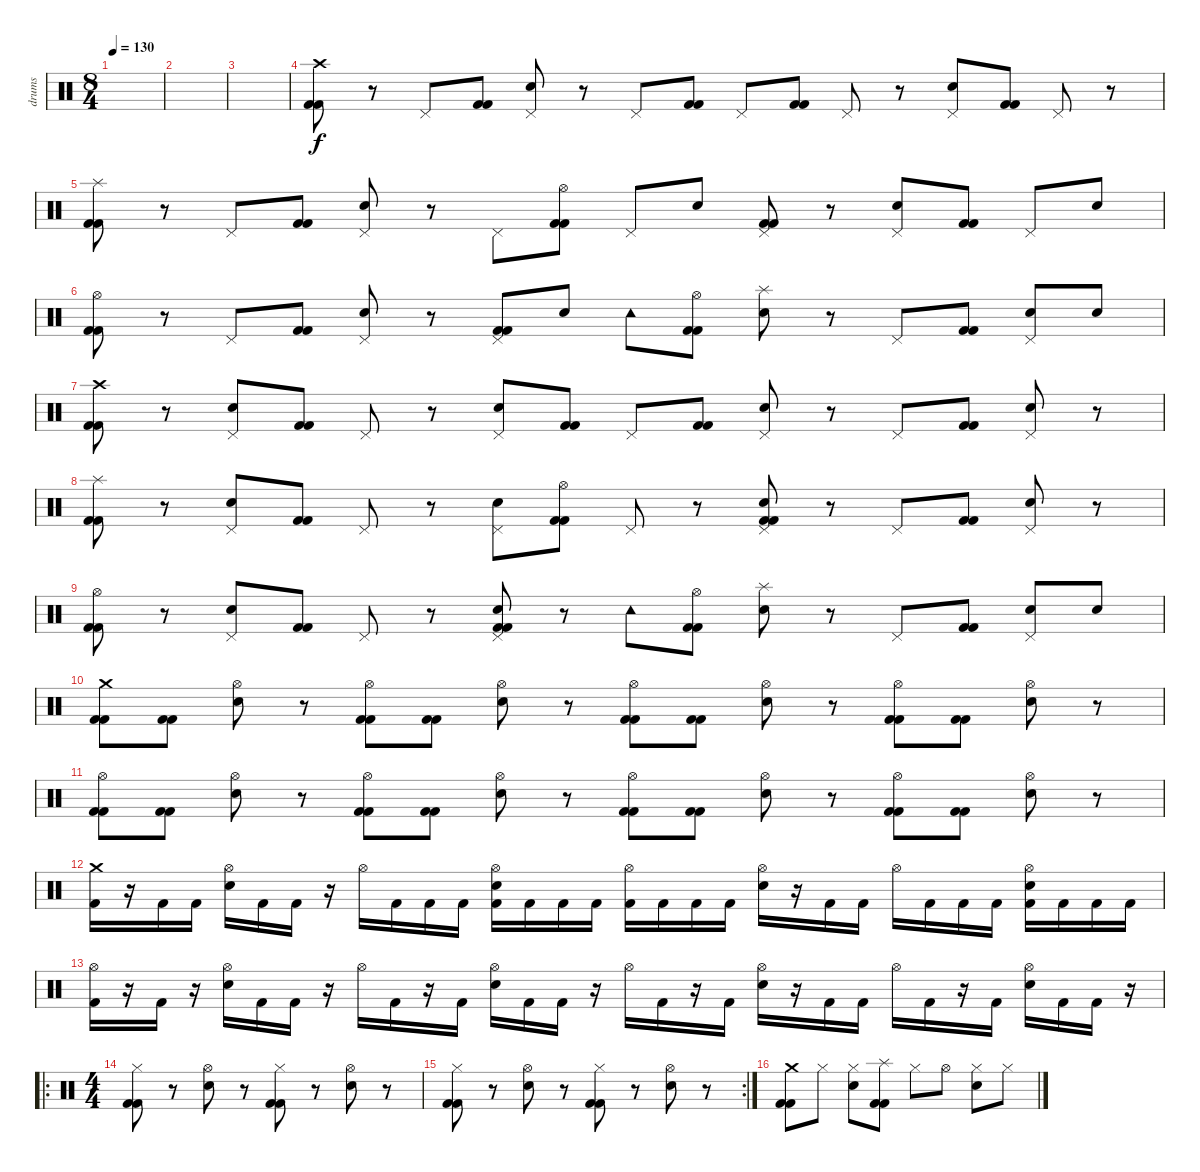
\track ("drums" "drums") {instrument percussion}
\staff {score}
\articulation defaults
\ts (8 4)
\tempo 130
\clef neutral
\ks c
|
|
|
("Crash high (hit)" "Kick (hit) 2" "Kick (hit) 2").8 r.8 "Pedal Hi-Hat (hit)".8 ("Kick (hit) 2" "Kick (hit) 2").8 ("Pedal Hi-Hat (hit)" "Electric Snare (hit)").8 r.8 "Pedal Hi-Hat (hit)".8 ("Kick (hit) 2" "Kick (hit) 2").8 "Pedal Hi-Hat (hit)".8 ("Kick (hit) 2" "Kick (hit) 2").8 "Pedal Hi-Hat (hit)".8 r.8 ("Pedal Hi-Hat (hit)" "Electric Snare (hit)").8 ("Kick (hit) 2" "Kick (hit) 2").8 "Pedal Hi-Hat (hit)".8 r.8 |
("Splash (hit)" "Kick (hit) 2" "Kick (hit) 2").8 r.8 "Pedal Hi-Hat (hit)".8 ("Kick (hit) 2" "Kick (hit) 2").8 ("Pedal Hi-Hat (hit)" "Electric Snare (hit)").8 r.8 "Pedal Hi-Hat (hit)".8 ("Hi-Hat (open)" "Kick (hit) 2" "Kick (hit) 2").8 "Pedal Hi-Hat (hit)".8 "Electric Snare (hit)".8 ("Pedal Hi-Hat (hit)" "Kick (hit) 2" "Kick (hit) 2").8 r.8 ("Pedal Hi-Hat (hit)" "Electric Snare (hit)").8 ("Kick (hit) 2" "Kick (hit) 2").8 "Pedal Hi-Hat (hit)".8 "Electric Snare (hit)".8 |
("Hi-Hat (open)" "Kick (hit) 2" "Kick (hit) 2").8 r.8 "Pedal Hi-Hat (hit)".8 ("Kick (hit) 2" "Kick (hit) 2").8 ("Pedal Hi-Hat (hit)" "Electric Snare (hit)").8 r.8 ("Pedal Hi-Hat (hit)" "Kick (hit) 2" "Kick (hit) 2").8 "Electric Snare (hit)".8 "Tambourine (hit)".8 ("Hi-Hat (open)" "Kick (hit) 2" "Kick (hit) 2").8 ("Splash (hit)" "Electric Snare (hit)").8 r.8 "Pedal Hi-Hat (hit)".8 ("Kick (hit) 2" "Kick (hit) 2").8 ("Pedal Hi-Hat (hit)" "Electric Snare (hit)").8 "Electric Snare (hit)".8 |
("Crash high (hit)" "Kick (hit) 2" "Kick (hit) 2").8 r.8 ("Pedal Hi-Hat (hit)" "Electric Snare (hit)").8 ("Kick (hit) 2" "Kick (hit) 2").8 "Pedal Hi-Hat (hit)".8 r.8 ("Pedal Hi-Hat (hit)" "Electric Snare (hit)").8 ("Kick (hit) 2" "Kick (hit) 2").8 "Pedal Hi-Hat (hit)".8 ("Kick (hit) 2" "Kick (hit) 2").8 ("Pedal Hi-Hat (hit)" "Electric Snare (hit)").8 r.8 "Pedal Hi-Hat (hit)".8 ("Kick (hit) 2" "Kick (hit) 2").8 ("Pedal Hi-Hat (hit)" "Electric Snare (hit)").8 r.8 |
("Splash (hit)" "Kick (hit) 2" "Kick (hit) 2").8 r.8 ("Pedal Hi-Hat (hit)" "Electric Snare (hit)").8 ("Kick (hit) 2" "Kick (hit) 2").8 "Pedal Hi-Hat (hit)".8 r.8 ("Pedal Hi-Hat (hit)" "Electric Snare (hit)").8 ("Hi-Hat (open)" "Kick (hit) 2" "Kick (hit) 2").8 "Pedal Hi-Hat (hit)".8 r.8 ("Pedal Hi-Hat (hit)" "Electric Snare (hit)" "Kick (hit) 2" "Kick (hit) 2").8 r.8 "Pedal Hi-Hat (hit)".8 ("Kick (hit) 2" "Kick (hit) 2").8 ("Pedal Hi-Hat (hit)" "Electric Snare (hit)").8 r.8 |
("Hi-Hat (open)" "Kick (hit) 2" "Kick (hit) 2").8 r.8 ("Pedal Hi-Hat (hit)" "Electric Snare (hit)").8 ("Kick (hit) 2" "Kick (hit) 2").8 "Pedal Hi-Hat (hit)".8 r.8 ("Pedal Hi-Hat (hit)" "Electric Snare (hit)" "Kick (hit) 2" "Kick (hit) 2").8 r.8 "Tambourine (hit)".8 ("Hi-Hat (open)" "Kick (hit) 2" "Kick (hit) 2").8 ("Splash (hit)" "Electric Snare (hit)").8 r.8 "Pedal Hi-Hat (hit)".8 ("Kick (hit) 2" "Kick (hit) 2").8 ("Pedal Hi-Hat (hit)" "Electric Snare (hit)").8 "Electric Snare (hit)".8 |
("Crash medium (hit)" "Kick (hit) 2" "Kick (hit) 2").8 ("Kick (hit) 2" "Kick (hit) 2").8 ("Hi-Hat (open)" "Electric Snare (hit)").8 r.8 ("Hi-Hat (open)" "Kick (hit) 2" "Kick (hit) 2").8 ("Kick (hit) 2" "Kick (hit) 2").8 ("Hi-Hat (open)" "Electric Snare (hit)").8 r.8 ("Hi-Hat (open)" "Kick (hit) 2" "Kick (hit) 2").8 ("Kick (hit) 2" "Kick (hit) 2").8 ("Hi-Hat (open)" "Electric Snare (hit)").8 r.8 ("Hi-Hat (open)" "Kick (hit) 2" "Kick (hit) 2").8 ("Kick (hit) 2" "Kick (hit) 2").8 ("Hi-Hat (open)" "Electric Snare (hit)").8 r.8 |
("Hi-Hat (open)" "Kick (hit) 2" "Kick (hit) 2").8 ("Kick (hit) 2" "Kick (hit) 2").8 ("Hi-Hat (open)" "Electric Snare (hit)").8 r.8 ("Hi-Hat (open)" "Kick (hit) 2" "Kick (hit) 2").8 ("Kick (hit) 2" "Kick (hit) 2").8 ("Hi-Hat (open)" "Electric Snare (hit)").8 r.8 ("Hi-Hat (open)" "Kick (hit) 2" "Kick (hit) 2").8 ("Kick (hit) 2" "Kick (hit) 2").8 ("Hi-Hat (open)" "Electric Snare (hit)").8 r.8 ("Hi-Hat (open)" "Kick (hit) 2" "Kick (hit) 2").8 ("Kick (hit) 2" "Kick (hit) 2").8 ("Hi-Hat (open)" "Electric Snare (hit)").8 r.8 |
("Crash medium (hit)" "Kick (hit) 2").16 r.16 "Kick (hit) 2".16 "Kick (hit) 2".16 ("Hi-Hat (open)" "Electric Snare (hit)").16 "Kick (hit) 2".16 "Kick (hit) 2".16 r.16 "Hi-Hat (open)".16 "Kick (hit) 2".16 "Kick (hit) 2".16 "Kick (hit) 2".16 ("Hi-Hat (open)" "Electric Snare (hit)" "Kick (hit) 2").16 "Kick (hit) 2".16 "Kick (hit) 2".16 "Kick (hit) 2".16 ("Hi-Hat (open)" "Kick (hit) 2").16 "Kick (hit) 2".16 "Kick (hit) 2".16 "Kick (hit) 2".16 ("Hi-Hat (open)" "Electric Snare (hit)").16 r.16 "Kick (hit) 2".16 "Kick (hit) 2".16 "Hi-Hat (open)".16 "Kick (hit) 2".16 "Kick (hit) 2".16 "Kick (hit) 2".16 ("Hi-Hat (open)" "Electric Snare (hit)" "Kick (hit) 2").16 "Kick (hit) 2".16 "Kick (hit) 2".16 "Kick (hit) 2".16 |
("Hi-Hat (open)" "Kick (hit) 2").16 r.16 "Kick (hit) 2".16 r.16 ("Hi-Hat (open)" "Electric Snare (hit)").16 "Kick (hit) 2".16 "Kick (hit) 2".16 r.16 "Hi-Hat (open)".16 "Kick (hit) 2".16 r.16 "Kick (hit) 2".16 ("Hi-Hat (open)" "Electric Snare (hit)").16 "Kick (hit) 2".16 "Kick (hit) 2".16 r.16 "Hi-Hat (open)".16 "Kick (hit) 2".16 r.16 "Kick (hit) 2".16 ("Hi-Hat (open)" "Electric Snare (hit)").16 r.16 "Kick (hit) 2".16 "Kick (hit) 2".16 "Hi-Hat (open)".16 "Kick (hit) 2".16 r.16 "Kick (hit) 2".16 ("Hi-Hat (open)" "Electric Snare (hit)").16 "Kick (hit) 2".16 "Kick (hit) 2".16 r.16 |
\ro
\ts (4 4)
("Hi-Hat (closed)" "Kick (hit) 2" "Kick (hit) 2").8 r.8 ("Hi-Hat (open)" "Electric Snare (hit)").8 r.8 ("Hi-Hat (closed)" "Kick (hit) 2" "Kick (hit) 2").8 r.8 ("Hi-Hat (open)" "Electric Snare (hit)").8 r.8 |
\rc 2
("Hi-Hat (closed)" "Kick (hit) 2" "Kick (hit) 2").8 r.8 ("Hi-Hat (open)" "Electric Snare (hit)").8 r.8 ("Hi-Hat (closed)" "Kick (hit) 2" "Kick (hit) 2").8 r.8 ("Hi-Hat (open)" "Electric Snare (hit)").8 r.8 |
("Crash medium (hit)" "Kick (hit) 2" "Kick (hit) 2").8 "Hi-Hat (closed)".8 ("Hi-Hat (closed)" "Electric Snare (hit)").8 ("Splash (hit)" "Kick (hit) 2" "Kick (hit) 2").8 "Hi-Hat (closed)".8 "Hi-Hat (open)".8 ("Hi-Hat (closed)" "Electric Snare (hit)").8 "Hi-Hat (closed)".8
